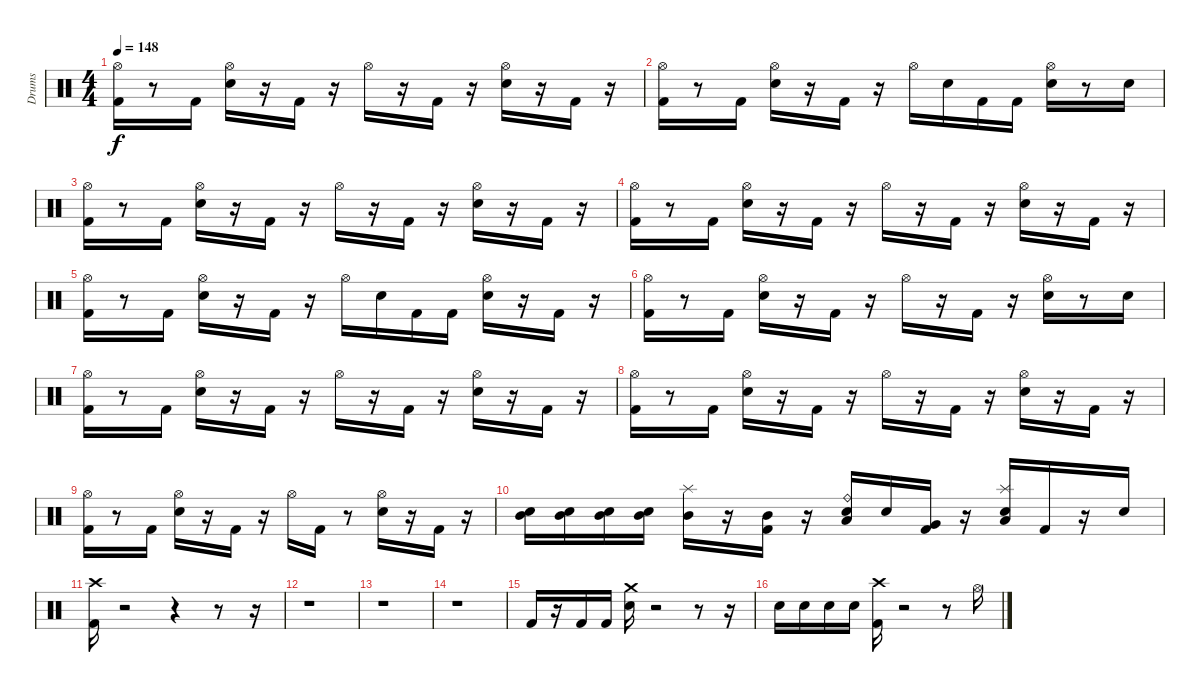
\track ("Drums" "Drums") {instrument percussion}
\staff {score}
\articulation defaults
\ts (4 4)
\tempo 148
\clef neutral
\ks c
("Hi-Hat (open)" "Kick (hit) 2").16{dy f} r.8 "Kick (hit) 2".16 ("Hi-Hat (open)" "Snare (hit) 2").16 r.16 "Kick (hit) 2".16 r.16 "Hi-Hat (open)".16 r.16 "Kick (hit) 2".16 r.16 ("Hi-Hat (open)" "Snare (hit) 2").16 r.16 "Kick (hit) 2".16 r.16 |
("Hi-Hat (open)" "Kick (hit) 2").16 r.8 "Kick (hit) 2".16 ("Hi-Hat (open)" "Snare (hit) 2").16 r.16 "Kick (hit) 2".16 r.16 "Hi-Hat (open)".16 "Snare (hit) 2".16 "Kick (hit) 2".16 "Kick (hit) 2".16 ("Hi-Hat (open)" "Snare (hit) 2").16 r.8 "Snare (hit) 2".16 |
("Hi-Hat (open)" "Kick (hit) 2").16 r.8 "Kick (hit) 2".16 ("Hi-Hat (open)" "Snare (hit) 2").16 r.16 "Kick (hit) 2".16 r.16 "Hi-Hat (open)".16 r.16 "Kick (hit) 2".16 r.16 ("Hi-Hat (open)" "Snare (hit) 2").16 r.16 "Kick (hit) 2".16 r.16 |
("Hi-Hat (open)" "Kick (hit) 2").16 r.8 "Kick (hit) 2".16 ("Hi-Hat (open)" "Snare (hit) 2").16 r.16 "Kick (hit) 2".16 r.16 "Hi-Hat (open)".16 r.16 "Kick (hit) 2".16 r.16 ("Hi-Hat (open)" "Snare (hit) 2").16 r.16 "Kick (hit) 2".16 r.16 |
("Hi-Hat (open)" "Kick (hit) 2").16 r.8 "Kick (hit) 2".16 ("Hi-Hat (open)" "Snare (hit) 2").16 r.16 "Kick (hit) 2".16 r.16 "Hi-Hat (open)".16 "Snare (hit) 2".16 "Kick (hit) 2".16 "Kick (hit) 2".16 ("Hi-Hat (open)" "Snare (hit) 2").16 r.16 "Kick (hit) 2".16 r.16 |
("Hi-Hat (open)" "Kick (hit) 2").16 r.8 "Kick (hit) 2".16 ("Hi-Hat (open)" "Snare (hit) 2").16 r.16 "Kick (hit) 2".16 r.16 "Hi-Hat (open)".16 r.16 "Kick (hit) 2".16 r.16 ("Hi-Hat (open)" "Snare (hit) 2").16 r.8 "Snare (hit) 2".16 |
("Hi-Hat (open)" "Kick (hit) 2").16 r.8 "Kick (hit) 2".16 ("Hi-Hat (open)" "Snare (hit) 2").16 r.16 "Kick (hit) 2".16 r.16 "Hi-Hat (open)".16 r.16 "Kick (hit) 2".16 r.16 ("Hi-Hat (open)" "Snare (hit) 2").16 r.16 "Kick (hit) 2".16 r.16 |
("Hi-Hat (open)" "Kick (hit) 2").16 r.8 "Kick (hit) 2".16 ("Hi-Hat (open)" "Snare (hit) 2").16 r.16 "Kick (hit) 2".16 r.16 "Hi-Hat (open)".16 r.16 "Kick (hit) 2".16 r.16 ("Hi-Hat (open)" "Snare (hit) 2").16 r.16 "Kick (hit) 2".16 r.16 |
("Hi-Hat (open)" "Kick (hit) 2").16 r.8 "Kick (hit) 2".16 ("Hi-Hat (open)" "Snare (hit) 2").16 r.16 "Kick (hit) 2".16 r.16 "Hi-Hat (open)".16 "Kick (hit) 2".16 r.8 ("Hi-Hat (open)" "Snare (hit) 2").16 r.16 "Kick (hit) 2".16 r.16 |
("Mid Tom (hit)" "Snare (hit) 2").16 ("Mid Tom (hit)" "Snare (hit) 2").16 ("Mid Tom (hit)" "Snare (hit) 2").16 ("Mid Tom (hit)" "Snare (hit) 2").16 ("Mid Tom (hit)" "Splash (hit)").16 r.16 ("Mid Tom (hit)" "Kick (hit) 2").16 r.16 ("Ride (bell)" "Low Tom (hit)" "Snare (hit) 2").16 "Snare (hit) 2".16 ("Very Low Tom (hit)" "Kick (hit) 2").16 r.16 ("Low Floor Tom (hit)" "Splash (hit)" "Snare (hit) 2").16 "Kick (hit) 2".16 r.16 "Snare (hit) 2".16 |
("Crash high (hit)" "Kick (hit) 2").16 r.2 r.4 r.8 r.16 |
r.1 |
r.1 |
r.1 |
"Kick (hit) 2".16 r.16 "Kick (hit) 2".16 "Kick (hit) 2".16 ("Crash medium (hit)" "Snare (hit) 2").16 r.2 r.8 r.16 |
"Snare (hit) 2".16 "Snare (hit) 2".16 "Snare (hit) 2".16 "Snare (hit) 2".16 ("Crash high (hit)" "Kick (hit) 2").16 r.2 r.8 "Hi-Hat (open)".16
